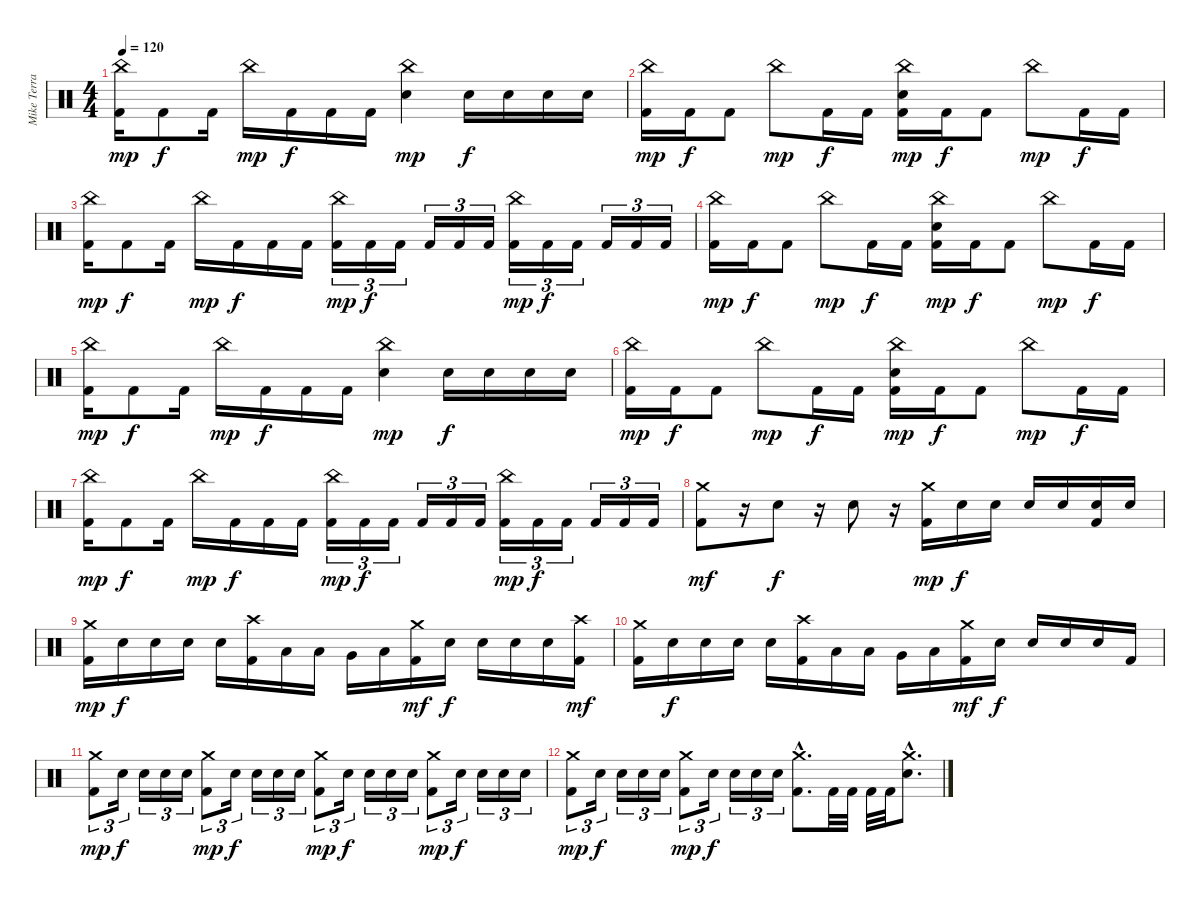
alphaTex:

\track ("Mike Terrana" "Mike Terra") {instrument percussion}
\staff {score}
\articulation defaults
\ts (4 4)
\tempo 120
\clef neutral
\ks c
("China (hit)" "Kick (hit) 2").16{dy mp} "Kick (hit) 2".8{dy f} "Kick (hit) 2".16 "China (hit)".16{dy mp} "Kick (hit) 2".16{dy f} "Kick (hit) 2".16 "Kick (hit) 2".16 ("China (hit)" "Electric Snare (hit)").4{dy mp} "Electric Snare (hit)".16{dy f} "Electric Snare (hit)".16 "Electric Snare (hit)".16 "Electric Snare (hit)".16 |
("China (hit)" "Kick (hit) 2").16{dy mp} "Kick (hit) 2".16{dy f} "Kick (hit) 2".8 "China (hit)".8{dy mp} "Kick (hit) 2".16{dy f} "Kick (hit) 2".16 ("China (hit)" "Electric Snare (hit)" "Kick (hit) 2").16{dy mp} "Kick (hit) 2".16{dy f} "Kick (hit) 2".8 "China (hit)".8{dy mp} "Kick (hit) 2".16{dy f} "Kick (hit) 2".16 |
("China (hit)" "Kick (hit) 2").16{dy mp} "Kick (hit) 2".8{dy f} "Kick (hit) 2".16 "China (hit)".16{dy mp} "Kick (hit) 2".16{dy f} "Kick (hit) 2".16 "Kick (hit) 2".16 ("China (hit)" "Kick (hit) 2").16{tu (3 2) dy mp} "Kick (hit) 2".16{tu (3 2) dy f} "Kick (hit) 2".16{tu (3 2)} "Kick (hit) 2".16{tu (3 2)} "Kick (hit) 2".16{tu (3 2)} "Kick (hit) 2".16{tu (3 2)} ("China (hit)" "Kick (hit) 2").16{tu (3 2) dy mp} "Kick (hit) 2".16{tu (3 2) dy f} "Kick (hit) 2".16{tu (3 2)} "Kick (hit) 2".16{tu (3 2)} "Kick (hit) 2".16{tu (3 2)} "Kick (hit) 2".16{tu (3 2)} |
("China (hit)" "Kick (hit) 2").16{dy mp} "Kick (hit) 2".16{dy f} "Kick (hit) 2".8 "China (hit)".8{dy mp} "Kick (hit) 2".16{dy f} "Kick (hit) 2".16 ("China (hit)" "Electric Snare (hit)" "Kick (hit) 2").16{dy mp} "Kick (hit) 2".16{dy f} "Kick (hit) 2".8 "China (hit)".8{dy mp} "Kick (hit) 2".16{dy f} "Kick (hit) 2".16 |
("China (hit)" "Kick (hit) 2").16{dy mp} "Kick (hit) 2".8{dy f} "Kick (hit) 2".16 "China (hit)".16{dy mp} "Kick (hit) 2".16{dy f} "Kick (hit) 2".16 "Kick (hit) 2".16 ("China (hit)" "Electric Snare (hit)").4{dy mp} "Electric Snare (hit)".16{dy f} "Electric Snare (hit)".16 "Electric Snare (hit)".16 "Electric Snare (hit)".16 |
("China (hit)" "Kick (hit) 2").16{dy mp} "Kick (hit) 2".16{dy f} "Kick (hit) 2".8 "China (hit)".8{dy mp} "Kick (hit) 2".16{dy f} "Kick (hit) 2".16 ("China (hit)" "Electric Snare (hit)" "Kick (hit) 2").16{dy mp} "Kick (hit) 2".16{dy f} "Kick (hit) 2".8 "China (hit)".8{dy mp} "Kick (hit) 2".16{dy f} "Kick (hit) 2".16 |
("China (hit)" "Kick (hit) 2").16{dy mp} "Kick (hit) 2".8{dy f} "Kick (hit) 2".16 "China (hit)".16{dy mp} "Kick (hit) 2".16{dy f} "Kick (hit) 2".16 "Kick (hit) 2".16 ("China (hit)" "Kick (hit) 2").16{tu (3 2) dy mp} "Kick (hit) 2".16{tu (3 2) dy f} "Kick (hit) 2".16{tu (3 2)} "Kick (hit) 2".16{tu (3 2)} "Kick (hit) 2".16{tu (3 2)} "Kick (hit) 2".16{tu (3 2)} ("China (hit)" "Kick (hit) 2").16{tu (3 2) dy mp} "Kick (hit) 2".16{tu (3 2) dy f} "Kick (hit) 2".16{tu (3 2)} "Kick (hit) 2".16{tu (3 2)} "Kick (hit) 2".16{tu (3 2)} "Kick (hit) 2".16{tu (3 2)} |
("Crash medium (hit)" "Kick (hit) 2").8{dy mf} r.16 "Electric Snare (hit)".8{dy f} r.16 "Electric Snare (hit)".8 r.16 ("Crash medium (hit)" "Kick (hit) 2").16{dy mp} "Electric Snare (hit)".16{dy f} "Electric Snare (hit)".16 "Electric Snare (hit)".16 "Electric Snare (hit)".16 ("Electric Snare (hit)" "Kick (hit) 2").16 "Electric Snare (hit)".16 |
("Crash medium (hit)" "Kick (hit) 2").16{dy mp} "Electric Snare (hit)".16{dy f} "Electric Snare (hit)".16 "Electric Snare (hit)".16 "Electric Snare (hit)".16 ("Crash high (hit)" "Kick (hit) 2").16 "Low Tom (hit)".16 "Low Tom (hit)".16 "Very Low Tom (hit)".16 "Low Floor Tom (hit)".16 ("Crash medium (hit)" "Kick (hit) 2").16{dy mf} "Electric Snare (hit)".16{dy f} "Electric Snare (hit)".16 "Electric Snare (hit)".16 "Electric Snare (hit)".16 ("Crash high (hit)" "Kick (hit) 2").16{dy mf} |
("Crash medium (hit)" "Kick (hit) 2").16 "Electric Snare (hit)".16{dy f} "Electric Snare (hit)".16 "Electric Snare (hit)".16 "Electric Snare (hit)".16 ("Crash high (hit)" "Kick (hit) 2").16 "Low Tom (hit)".16 "Low Tom (hit)".16 "Very Low Tom (hit)".16 "Low Floor Tom (hit)".16 ("Crash medium (hit)" "Kick (hit) 2").16{dy mf} "Electric Snare (hit)".16{dy f} "Electric Snare (hit)".16 "Electric Snare (hit)".16 "Electric Snare (hit)".16 "Kick (hit) 2".16 |
("Crash medium (hit)" "Kick (hit) 2").8{tu (3 2) dy mp} "Electric Snare (hit)".16{tu (3 2) dy f} "Electric Snare (hit)".16{tu (3 2)} "Electric Snare (hit)".16{tu (3 2)} "Electric Snare (hit)".16{tu (3 2)} ("Crash medium (hit)" "Kick (hit) 2").8{tu (3 2) dy mp} "Electric Snare (hit)".16{tu (3 2) dy f} "Electric Snare (hit)".16{tu (3 2)} "Electric Snare (hit)".16{tu (3 2)} "Electric Snare (hit)".16{tu (3 2)} ("Crash medium (hit)" "Kick (hit) 2").8{tu (3 2) dy mp} "Electric Snare (hit)".16{tu (3 2) dy f} "Electric Snare (hit)".16{tu (3 2)} "Electric Snare (hit)".16{tu (3 2)} "Electric Snare (hit)".16{tu (3 2)} ("Crash medium (hit)" "Kick (hit) 2").8{tu (3 2) dy mp} "Electric Snare (hit)".16{tu (3 2) dy f} "Electric Snare (hit)".16{tu (3 2)} "Electric Snare (hit)".16{tu (3 2)} "Electric Snare (hit)".16{tu (3 2)} |
("Crash medium (hit)" "Kick (hit) 2").8{tu (3 2) dy mp} "Electric Snare (hit)".16{tu (3 2) dy f} "Electric Snare (hit)".16{tu (3 2)} "Electric Snare (hit)".16{tu (3 2)} "Electric Snare (hit)".16{tu (3 2)} ("Crash medium (hit)" "Kick (hit) 2").8{tu (3 2) dy mp} "Electric Snare (hit)".16{tu (3 2) dy f} "Electric Snare (hit)".16{tu (3 2)} "Electric Snare (hit)".16{tu (3 2)} "Electric Snare (hit)".16{tu (3 2)} ("Crash medium (hit)"{hac} "Kick (hit) 2"{hac}).8{d} "Kick (hit) 2".32 "Kick (hit) 2".32 "Kick (hit) 2".32 "Kick (hit) 2".32 ("Crash medium (hit)"{hac} "Electric Snare (hit)"{hac}).8{d}
